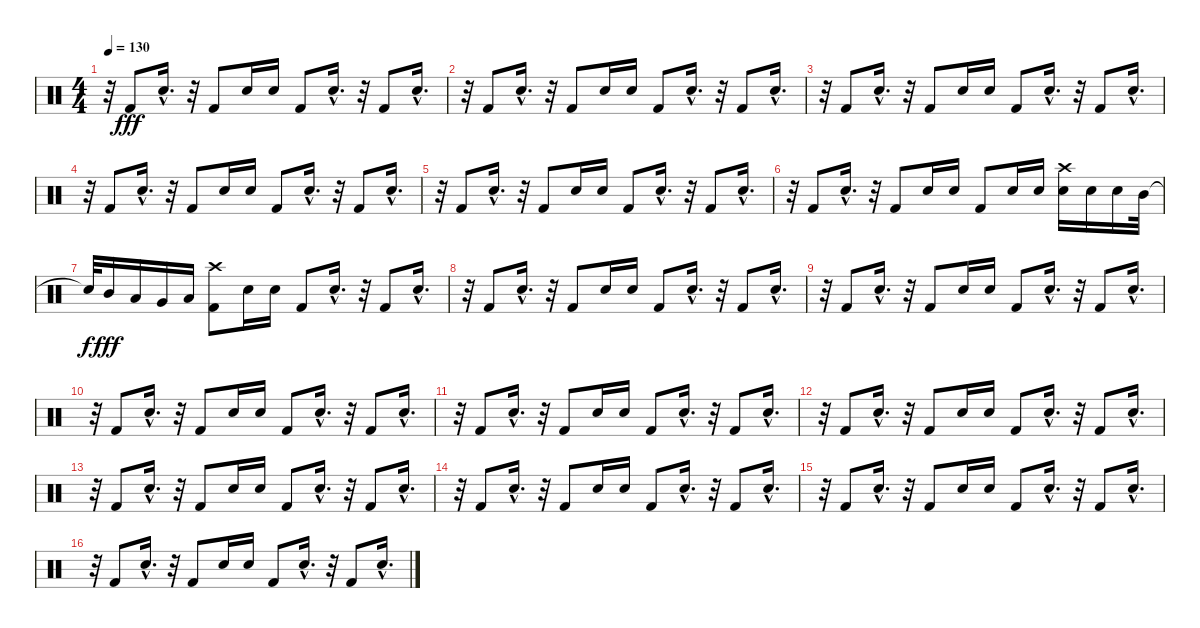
\track "" {instrument percussion}
\staff {score}
\articulation defaults
\ts (4 4)
\tempo 130
\clef neutral
\ks c
r.32{dy fff} "Kick (hit) 2".8 "Electric Snare (hit)"{hac}.16{d} r.32 "Kick (hit) 2".8 "Electric Snare (hit)".16 "Electric Snare (hit)".16 "Kick (hit) 2".8 "Electric Snare (hit)"{hac}.16{d} r.32 "Kick (hit) 2".8 "Electric Snare (hit)"{hac}.16{d} |
r.32 "Kick (hit) 2".8 "Electric Snare (hit)"{hac}.16{d} r.32 "Kick (hit) 2".8 "Electric Snare (hit)".16 "Electric Snare (hit)".16 "Kick (hit) 2".8 "Electric Snare (hit)"{hac}.16{d} r.32 "Kick (hit) 2".8 "Electric Snare (hit)"{hac}.16{d} |
r.32 "Kick (hit) 2".8 "Electric Snare (hit)"{hac}.16{d} r.32 "Kick (hit) 2".8 "Electric Snare (hit)".16 "Electric Snare (hit)".16 "Kick (hit) 2".8 "Electric Snare (hit)"{hac}.16{d} r.32 "Kick (hit) 2".8 "Electric Snare (hit)"{hac}.16{d} |
r.32 "Kick (hit) 2".8 "Electric Snare (hit)"{hac}.16{d} r.32 "Kick (hit) 2".8 "Electric Snare (hit)".16 "Electric Snare (hit)".16 "Kick (hit) 2".8 "Electric Snare (hit)"{hac}.16{d} r.32 "Kick (hit) 2".8 "Electric Snare (hit)"{hac}.16{d} |
r.32 "Kick (hit) 2".8 "Electric Snare (hit)"{hac}.16{d} r.32 "Kick (hit) 2".8 "Electric Snare (hit)".16 "Electric Snare (hit)".16 "Kick (hit) 2".8 "Electric Snare (hit)"{hac}.16{d} r.32 "Kick (hit) 2".8 "Electric Snare (hit)"{hac}.16{d} |
r.32 "Kick (hit) 2".8 "Electric Snare (hit)"{hac}.16{d} r.32 "Kick (hit) 2".8 "Electric Snare (hit)".16 "Electric Snare (hit)".16 "Kick (hit) 2".8 "Electric Snare (hit)".16 "Electric Snare (hit)".16 ("Crash high (hit)" "Electric Snare (hit)").16 "Electric Snare (hit)".16 "Electric Snare (hit)".16 "Mid Tom (hit)".32 |
"Snare (hit)"{t}.32{dy f} "Mid Tom (hit)".16{dy fff} "Low Tom (hit)".16 "Very Low Tom (hit)".16 "Low Floor Tom (hit)".16 ("Crash high (hit)" "Kick (hit) 2").8 "Electric Snare (hit)".16 "Electric Snare (hit)".16 "Kick (hit) 2".8 "Electric Snare (hit)"{hac}.16{d} r.32 "Kick (hit) 2".8 "Electric Snare (hit)"{hac}.16{d} |
r.32 "Kick (hit) 2".8 "Electric Snare (hit)"{hac}.16{d} r.32 "Kick (hit) 2".8 "Electric Snare (hit)".16 "Electric Snare (hit)".16 "Kick (hit) 2".8 "Electric Snare (hit)"{hac}.16{d} r.32 "Kick (hit) 2".8 "Electric Snare (hit)"{hac}.16{d} |
r.32 "Kick (hit) 2".8 "Electric Snare (hit)"{hac}.16{d} r.32 "Kick (hit) 2".8 "Electric Snare (hit)".16 "Electric Snare (hit)".16 "Kick (hit) 2".8 "Electric Snare (hit)"{hac}.16{d} r.32 "Kick (hit) 2".8 "Electric Snare (hit)"{hac}.16{d} |
r.32 "Kick (hit) 2".8 "Electric Snare (hit)"{hac}.16{d} r.32 "Kick (hit) 2".8 "Electric Snare (hit)".16 "Electric Snare (hit)".16 "Kick (hit) 2".8 "Electric Snare (hit)"{hac}.16{d} r.32 "Kick (hit) 2".8 "Electric Snare (hit)"{hac}.16{d} |
r.32 "Kick (hit) 2".8 "Electric Snare (hit)"{hac}.16{d} r.32 "Kick (hit) 2".8 "Electric Snare (hit)".16 "Electric Snare (hit)".16 "Kick (hit) 2".8 "Electric Snare (hit)"{hac}.16{d} r.32 "Kick (hit) 2".8 "Electric Snare (hit)"{hac}.16{d} |
r.32 "Kick (hit) 2".8 "Electric Snare (hit)"{hac}.16{d} r.32 "Kick (hit) 2".8 "Electric Snare (hit)".16 "Electric Snare (hit)".16 "Kick (hit) 2".8 "Electric Snare (hit)"{hac}.16{d} r.32 "Kick (hit) 2".8 "Electric Snare (hit)"{hac}.16{d} |
r.32 "Kick (hit) 2".8 "Electric Snare (hit)"{hac}.16{d} r.32 "Kick (hit) 2".8 "Electric Snare (hit)".16 "Electric Snare (hit)".16 "Kick (hit) 2".8 "Electric Snare (hit)"{hac}.16{d} r.32 "Kick (hit) 2".8 "Electric Snare (hit)"{hac}.16{d} |
r.32 "Kick (hit) 2".8 "Electric Snare (hit)"{hac}.16{d} r.32 "Kick (hit) 2".8 "Electric Snare (hit)".16 "Electric Snare (hit)".16 "Kick (hit) 2".8 "Electric Snare (hit)"{hac}.16{d} r.32 "Kick (hit) 2".8 "Electric Snare (hit)"{hac}.16{d} |
r.32 "Kick (hit) 2".8 "Electric Snare (hit)"{hac}.16{d} r.32 "Kick (hit) 2".8 "Electric Snare (hit)".16 "Electric Snare (hit)".16 "Kick (hit) 2".8 "Electric Snare (hit)"{hac}.16{d} r.32 "Kick (hit) 2".8 "Electric Snare (hit)"{hac}.16{d} |
r.32 "Kick (hit) 2".8 "Electric Snare (hit)"{hac}.16{d} r.32 "Kick (hit) 2".8 "Electric Snare (hit)".16 "Electric Snare (hit)".16 "Kick (hit) 2".8 "Electric Snare (hit)"{hac}.16{d} r.32 "Kick (hit) 2".8 "Electric Snare (hit)"{hac}.16{d}
